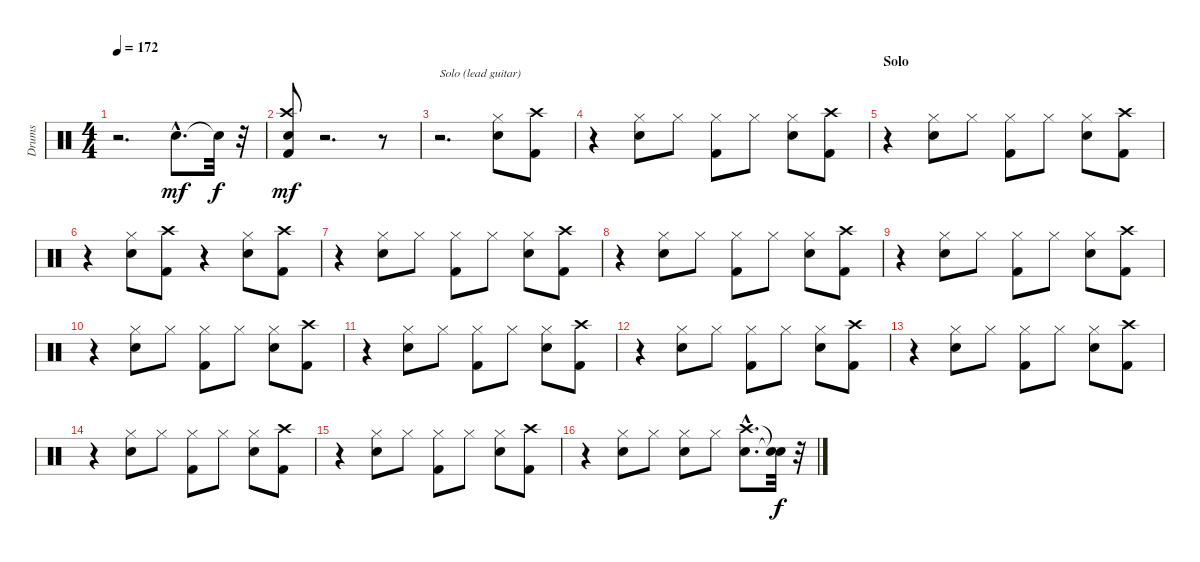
\track ("Drums" "Drums") {instrument percussion}
\staff {score}
\articulation defaults
\ts (4 4)
\tempo 172
\clef neutral
\ks c
r.2{d dy mf} "Snare (hit) 2"{hac}.8{d} "Snare (hit)"{t}.32{dy f} r.32 |
("Crash high (hit)" "Snare (hit) 2" "Kick (hit) 2").8{dy mf} r.2{d} r.8 |
r.2{d txt "Solo (lead guitar)"} ("Hi-Hat (closed)" "Snare (hit) 2").8 ("Crash high (hit)" "Kick (hit) 2").8 |
r.4 ("Hi-Hat (closed)" "Snare (hit) 2").8 "Hi-Hat (closed)".8 ("Hi-Hat (closed)" "Kick (hit) 2").8 "Hi-Hat (closed)".8 ("Snare (hit) 2" "Hi-Hat (closed)").8 ("Crash high (hit)" "Kick (hit) 2").8 |
\section ("" "Solo")
r.4 ("Snare (hit) 2" "Hi-Hat (closed)").8 "Hi-Hat (closed)".8 ("Kick (hit) 2" "Hi-Hat (closed)").8 "Hi-Hat (closed)".8 ("Snare (hit) 2" "Hi-Hat (closed)").8 ("Kick (hit) 2" "Crash high (hit)").8 |
r.4 ("Snare (hit) 2" "Hi-Hat (closed)").8 ("Kick (hit) 2" "Crash high (hit)").8 r.4 ("Snare (hit) 2" "Hi-Hat (closed)").8 ("Kick (hit) 2" "Crash high (hit)").8 |
r.4 ("Snare (hit) 2" "Hi-Hat (closed)").8 "Hi-Hat (closed)".8 ("Kick (hit) 2" "Hi-Hat (closed)").8 "Hi-Hat (closed)".8 ("Hi-Hat (closed)" "Snare (hit) 2").8 ("Crash high (hit)" "Kick (hit) 2").8 |
r.4 ("Hi-Hat (closed)" "Snare (hit) 2").8 "Hi-Hat (closed)".8 ("Hi-Hat (closed)" "Kick (hit) 2").8 "Hi-Hat (closed)".8 ("Hi-Hat (closed)" "Snare (hit) 2").8 ("Crash high (hit)" "Kick (hit) 2").8 |
r.4 ("Hi-Hat (closed)" "Snare (hit) 2").8 "Hi-Hat (closed)".8 ("Hi-Hat (closed)" "Kick (hit) 2").8 "Hi-Hat (closed)".8 ("Hi-Hat (closed)" "Snare (hit) 2").8 ("Crash high (hit)" "Kick (hit) 2").8 |
r.4 ("Hi-Hat (closed)" "Snare (hit) 2").8 "Hi-Hat (closed)".8 ("Hi-Hat (closed)" "Kick (hit) 2").8 "Hi-Hat (closed)".8 ("Hi-Hat (closed)" "Snare (hit) 2").8 ("Crash high (hit)" "Kick (hit) 2").8 |
r.4 ("Hi-Hat (closed)" "Snare (hit) 2").8 "Hi-Hat (closed)".8 ("Hi-Hat (closed)" "Kick (hit) 2").8 "Hi-Hat (closed)".8 ("Hi-Hat (closed)" "Snare (hit) 2").8 ("Crash high (hit)" "Kick (hit) 2").8 |
r.4 ("Hi-Hat (closed)" "Snare (hit) 2").8 "Hi-Hat (closed)".8 ("Hi-Hat (closed)" "Kick (hit) 2").8 "Hi-Hat (closed)".8 ("Hi-Hat (closed)" "Snare (hit) 2").8 ("Crash high (hit)" "Kick (hit) 2").8 |
r.4 ("Hi-Hat (closed)" "Snare (hit) 2").8 "Hi-Hat (closed)".8 ("Hi-Hat (closed)" "Kick (hit) 2").8 "Hi-Hat (closed)".8 ("Hi-Hat (closed)" "Snare (hit) 2").8 ("Crash high (hit)" "Kick (hit) 2").8 |
r.4 ("Hi-Hat (closed)" "Snare (hit) 2").8 "Hi-Hat (closed)".8 ("Hi-Hat (closed)" "Kick (hit) 2").8 "Hi-Hat (closed)".8 ("Hi-Hat (closed)" "Snare (hit) 2").8 ("Crash high (hit)" "Kick (hit) 2").8 |
r.4 ("Hi-Hat (closed)" "Snare (hit) 2").8 "Hi-Hat (closed)".8 ("Hi-Hat (closed)" "Kick (hit) 2").8 "Hi-Hat (closed)".8 ("Hi-Hat (closed)" "Snare (hit) 2").8 ("Crash high (hit)" "Kick (hit) 2").8 |
r.4 ("Snare (hit) 2" "Hi-Hat (closed)").8 "Hi-Hat (closed)".8 ("Snare (hit) 2" "Hi-Hat (closed)").8 "Hi-Hat (closed)".8 ("Snare (hit) 2"{hac} "Crash high (hit)"{hac}).8{d} ("Snare (hit)"{t} "Snare (hit)"{t}).32{dy f} r.32
